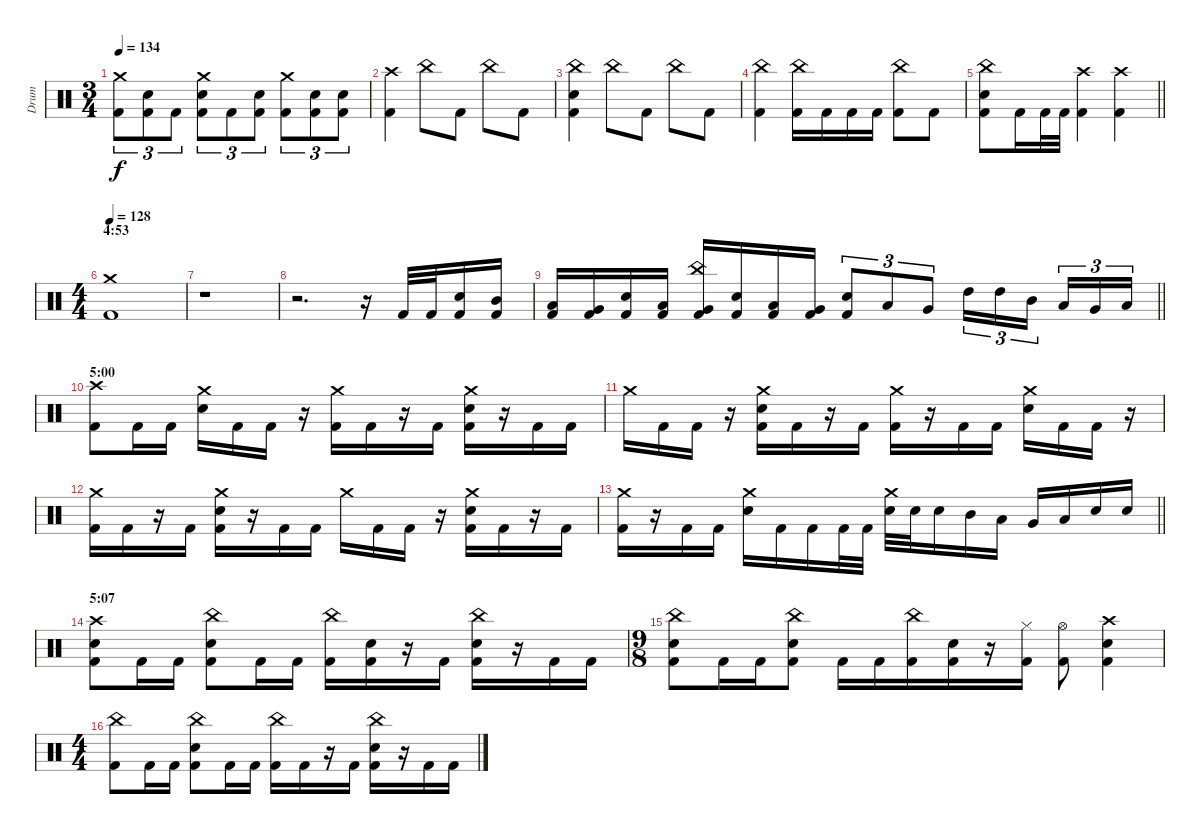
\track ("Drum" "Drum") {instrument percussion}
\staff {score}
\articulation defaults
\ts (3 4)
\tempo 134
\clef neutral
\ks c
("Crash medium (hit)" "Kick (hit) 2").8{tu (3 2) dy f} ("Electric Snare (hit)" "Kick (hit) 2").8{tu (3 2)} "Kick (hit) 2".8{tu (3 2)} ("Crash medium (hit)" "Electric Snare (hit)" "Kick (hit) 2").8{tu (3 2)} "Kick (hit) 2".8{tu (3 2)} ("Electric Snare (hit)" "Kick (hit) 2").8{tu (3 2)} ("Crash medium (hit)" "Kick (hit) 2").8{tu (3 2)} ("Electric Snare (hit)" "Kick (hit) 2").8{tu (3 2)} ("Electric Snare (hit)" "Kick (hit) 2").8{tu (3 2)} |
("Crash high (hit)" "Kick (hit) 2").4 "China (hit)".8 "Kick (hit) 2".8 "China (hit)".8 "Kick (hit) 2".8 |
("China (hit)" "Electric Snare (hit)" "Kick (hit) 2").4 "China (hit)".8 "Kick (hit) 2".8 "China (hit)".8 "Kick (hit) 2".8 |
("China (hit)" "Kick (hit) 2").4 ("China (hit)" "Kick (hit) 2").16 "Kick (hit) 2".16 "Kick (hit) 2".16 "Kick (hit) 2".16 ("China (hit)" "Kick (hit) 2").8 "Kick (hit) 2".8 |
\barLineRight lightlight
("China (hit)" "Electric Snare (hit)" "Kick (hit) 2").8 "Kick (hit) 2".16 "Kick (hit) 2".32 "Kick (hit) 2".32 ("Crash high (hit)" "Kick (hit) 2").4 ("Crash high (hit)" "Kick (hit) 2").4 |
\ts (4 4)
\section ("" "4:53")
\tempo 128
("Crash medium (hit)" "Kick (hit) 2").1{volume 11} |
r.1 |
r.2{d} r.16 "Kick (hit) 2".32 "Kick (hit) 2".32 ("Electric Snare (hit)" "Kick (hit) 2").16 ("Mid Tom (hit)" "Kick (hit) 2").16 |
\barLineRight lightlight
("Low Tom (hit)" "Kick (hit) 2").16 ("Very Low Tom (hit)" "Kick (hit) 2").16 ("Electric Snare (hit)" "Kick (hit) 2").16 ("Low Tom (hit)" "Kick (hit) 2").16 ("China (hit)" "Very Low Tom (hit)" "Kick (hit) 2").16 ("Electric Snare (hit)" "Kick (hit) 2").16 ("Low Tom (hit)" "Kick (hit) 2").16 ("Very Low Tom (hit)" "Kick (hit) 2").16 ("Electric Snare (hit)" "Kick (hit) 2").8{tu (3 2)} "Low Tom (hit)".8{tu (3 2)} "Very Low Tom (hit)".8{tu (3 2)} "High Tom (hit)".16{tu (3 2)} "High Tom (hit)".16{tu (3 2)} "Mid Tom (hit)".16{tu (3 2)} "Low Tom (hit)".16{tu (3 2)} "Very Low Tom (hit)".16{tu (3 2)} "Low Floor Tom (hit)".16{tu (3 2)} |
\section ("" "5:00")
("Crash high (hit)" "Kick (hit) 2").8 "Kick (hit) 2".16 "Kick (hit) 2".16 ("Crash medium (hit)" "Electric Snare (hit)").16 "Kick (hit) 2".16 "Kick (hit) 2".16 r.16 ("Crash medium (hit)" "Kick (hit) 2").16 "Kick (hit) 2".16 r.16 "Kick (hit) 2".16 ("Crash medium (hit)" "Electric Snare (hit)" "Kick (hit) 2").16 r.16 "Kick (hit) 2".16 "Kick (hit) 2".16 |
"Crash medium (hit)".16 "Kick (hit) 2".16 "Kick (hit) 2".16 r.16 ("Crash medium (hit)" "Electric Snare (hit)" "Kick (hit) 2").16 "Kick (hit) 2".16 r.16 "Kick (hit) 2".16 ("Crash medium (hit)" "Kick (hit) 2").16 r.16 "Kick (hit) 2".16 "Kick (hit) 2".16 ("Crash medium (hit)" "Electric Snare (hit)").16 "Kick (hit) 2".16 "Kick (hit) 2".16 r.16 |
("Crash medium (hit)" "Kick (hit) 2").16 "Kick (hit) 2".16 r.16 "Kick (hit) 2".16 ("Crash medium (hit)" "Electric Snare (hit)" "Kick (hit) 2").16 r.16 "Kick (hit) 2".16 "Kick (hit) 2".16 "Crash medium (hit)".16 "Kick (hit) 2".16 "Kick (hit) 2".16 r.16 ("Crash medium (hit)" "Electric Snare (hit)" "Kick (hit) 2").16 "Kick (hit) 2".16 r.16 "Kick (hit) 2".16 |
\barLineRight lightlight
("Crash medium (hit)" "Kick (hit) 2").16 r.16 "Kick (hit) 2".16 "Kick (hit) 2".16 ("Crash medium (hit)" "Electric Snare (hit)").16 "Kick (hit) 2".16 "Kick (hit) 2".16 "Kick (hit) 2".32 "Kick (hit) 2".32 ("Crash medium (hit)" "Electric Snare (hit)").32 "Electric Snare (hit)".32 "Electric Snare (hit)".16 "Mid Tom (hit)".16 "Low Tom (hit)".16 "Very Low Tom (hit)".16 "Low Floor Tom (hit)".16 "Electric Snare (hit)".16 "Electric Snare (hit)".16 |
\section ("" "5:07")
("Crash high (hit)" "Electric Snare (hit)" "Kick (hit) 2").8 "Kick (hit) 2".16 "Kick (hit) 2".16 ("China (hit)" "Electric Snare (hit)" "Kick (hit) 2").8 "Kick (hit) 2".16 "Kick (hit) 2".16 ("China (hit)" "Kick (hit) 2").16 ("Electric Snare (hit)" "Kick (hit) 2").16 r.16 "Kick (hit) 2".16 ("China (hit)" "Electric Snare (hit)" "Kick (hit) 2").16 r.16 "Kick (hit) 2".16 "Kick (hit) 2".16 |
\ts (9 8)
("China (hit)" "Electric Snare (hit)" "Kick (hit) 2").8 "Kick (hit) 2".16 "Kick (hit) 2".16 ("China (hit)" "Electric Snare (hit)" "Kick (hit) 2").8 "Kick (hit) 2".16 "Kick (hit) 2".16 ("China (hit)" "Kick (hit) 2").16 ("Electric Snare (hit)" "Kick (hit) 2").16 r.16 ("Hi-Hat (closed)" "Kick (hit) 2").16 ("Hi-Hat (open)" "Kick (hit) 2").8 ("Crash high (hit)" "Electric Snare (hit)" "Kick (hit) 2").4 |
\ts (4 4)
("China (hit)" "Kick (hit) 2").8 "Kick (hit) 2".16 "Kick (hit) 2".16 ("China (hit)" "Electric Snare (hit)" "Kick (hit) 2").8 "Kick (hit) 2".16 "Kick (hit) 2".16 ("China (hit)" "Kick (hit) 2").16 "Kick (hit) 2".16 r.16 "Kick (hit) 2".16 ("China (hit)" "Electric Snare (hit)" "Kick (hit) 2").16 r.16 "Kick (hit) 2".16 "Kick (hit) 2".16
